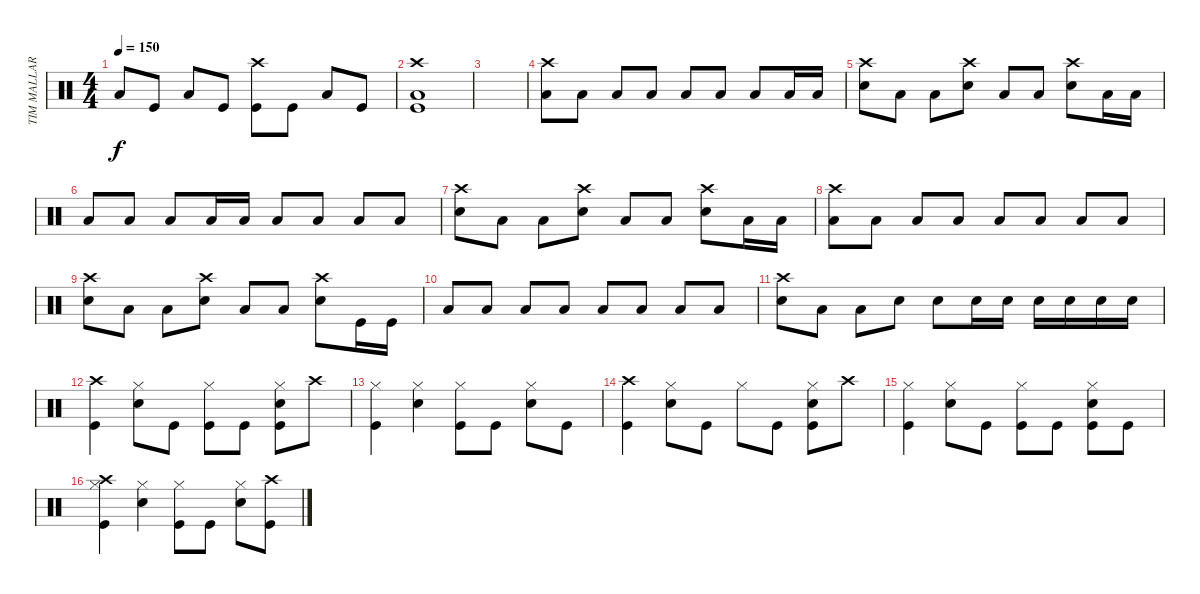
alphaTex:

\track ("TIM MALLARE - drums" "TIM MALLAR") {instrument percussion}
\staff {score}
\articulation defaults
\ts (4 4)
\tempo 150
\clef neutral
\ks c "Low Tom (hit)".8{dy f} "Kick (hit)".8 "Low Tom (hit)".8 "Kick (hit)".8
("Crash high (hit)" "Kick (hit)").8 "Kick (hit)".8 "Low Tom (hit)".8 "Kick (hit)".8 |
("Crash high (hit)" "Low Tom (hit)" "Kick (hit)").1 |
|
("Crash high (hit)" "Low Tom (hit)").8 "Low Tom (hit)".8 "Low Tom (hit)".8 "Low Tom (hit)".8 "Low Tom (hit)".8 "Low Tom (hit)".8 "Low Tom (hit)".8 "Low Tom (hit)".16 "Low Tom (hit)".16 |
("Crash high (hit)" "Electric Snare (hit)").8 "Low Tom (hit)".8 "Low Tom (hit)".8 ("Crash high (hit)" "Electric Snare (hit)").8 "Low Tom (hit)".8 "Low Tom (hit)".8 ("Crash high (hit)" "Electric Snare (hit)").8 "Low Tom (hit)".16 "Low Tom (hit)".16 |
"Low Tom (hit)".8 "Low Tom (hit)".8 "Low Tom (hit)".8 "Low Tom (hit)".16 "Low Tom (hit)".16 "Low Tom (hit)".8 "Low Tom (hit)".8 "Low Tom (hit)".8 "Low Tom (hit)".8 |
("Crash high (hit)" "Electric Snare (hit)").8 "Low Tom (hit)".8 "Low Tom (hit)".8 ("Crash high (hit)" "Electric Snare (hit)").8 "Low Tom (hit)".8 "Low Tom (hit)".8 ("Crash high (hit)" "Electric Snare (hit)").8 "Low Tom (hit)".16 "Low Tom (hit)".16 |
("Crash high (hit)" "Low Tom (hit)").8 "Low Tom (hit)".8 "Low Tom (hit)".8 "Low Tom (hit)".8 "Low Tom (hit)".8 "Low Tom (hit)".8 "Low Tom (hit)".8 "Low Tom (hit)".8 |
("Crash high (hit)" "Electric Snare (hit)").8 "Low Tom (hit)".8 "Low Tom (hit)".8 ("Crash high (hit)" "Electric Snare (hit)").8 "Low Tom (hit)".8 "Low Tom (hit)".8 ("Crash high (hit)" "Electric Snare (hit)").8 "Kick (hit)".16 "Kick (hit)".16 |
"Low Tom (hit)".8 "Low Tom (hit)".8 "Low Tom (hit)".8 "Low Tom (hit)".8 "Low Tom (hit)".8 "Low Tom (hit)".8 "Low Tom (hit)".8 "Low Tom (hit)".8 |
("Crash high (hit)" "Electric Snare (hit)").8 "Low Tom (hit)".8 "Low Tom (hit)".8 "Electric Snare (hit)".8 "Electric Snare (hit)".8 "Electric Snare (hit)".16 "Electric Snare (hit)".16 "Electric Snare (hit)".16 "Electric Snare (hit)".16 "Electric Snare (hit)".16 "Electric Snare (hit)".16 |
("Crash high (hit)" "Kick (hit)").4 ("Hi-Hat (closed)" "Electric Snare (hit)").8 "Kick (hit)".8 ("Hi-Hat (closed)" "Kick (hit)").8 "Kick (hit)".8 ("Hi-Hat (closed)" "Electric Snare (hit)" "Kick (hit)").8 "Crash high (hit)".8 |
("Hi-Hat (closed)" "Kick (hit)").4 ("Hi-Hat (closed)" "Electric Snare (hit)").4 ("Hi-Hat (closed)" "Kick (hit)").8 "Kick (hit)".8 ("Hi-Hat (closed)" "Electric Snare (hit)").8 "Kick (hit)".8 |
("Crash high (hit)" "Kick (hit)").4 ("Hi-Hat (closed)" "Electric Snare (hit)").8 "Kick (hit)".8 "Hi-Hat (closed)".8 "Kick (hit)".8 ("Hi-Hat (closed)" "Electric Snare (hit)" "Kick (hit)").8 "Crash high (hit)".8 |
("Hi-Hat (closed)" "Kick (hit)").4 ("Hi-Hat (closed)" "Electric Snare (hit)").8 "Kick (hit)".8 ("Hi-Hat (closed)" "Kick (hit)").8 "Kick (hit)".8 ("Hi-Hat (closed)" "Electric Snare (hit)" "Kick (hit)").8 "Kick (hit)".8 |
("Crash high (hit)" "Hi-Hat (closed)" "Kick (hit)").4 ("Hi-Hat (closed)" "Electric Snare (hit)").4 ("Hi-Hat (closed)" "Kick (hit)").8 "Kick (hit)".8 ("Hi-Hat (closed)" "Electric Snare (hit)").8 ("Crash high (hit)" "Kick (hit)").8
